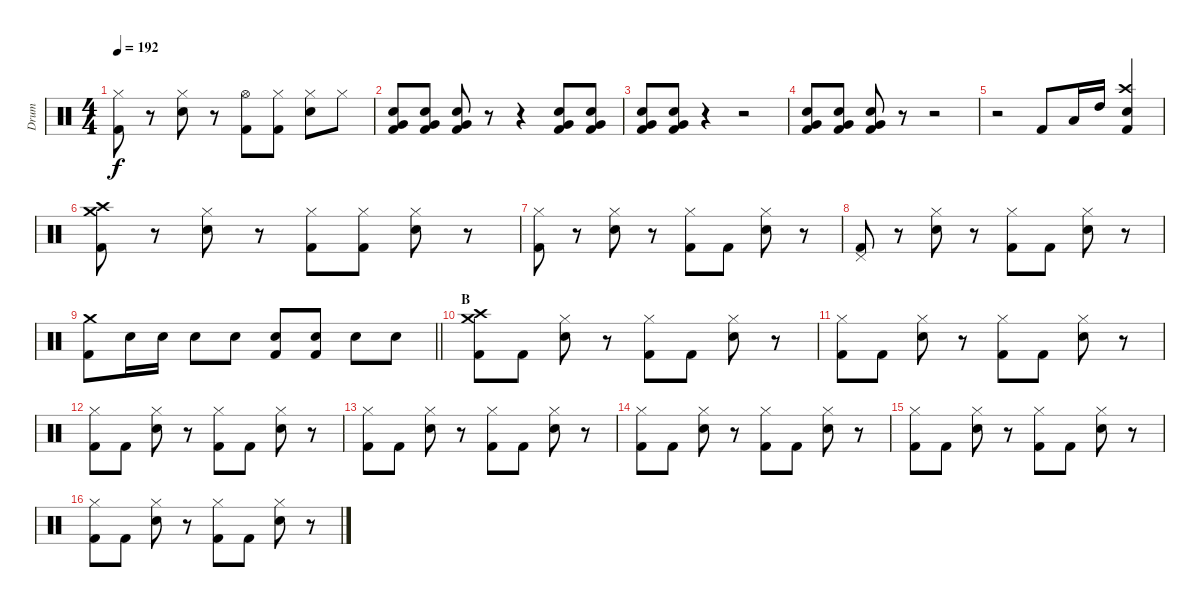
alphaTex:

\track ("Drum" "Drum") {instrument percussion}
\staff {score}
\articulation defaults
\ts (4 4)
\tempo 192
\clef neutral
\ks c
("Hi-Hat (closed)" "Kick (hit) 2").8{dy f} r.8 ("Hi-Hat (closed)" "Electric Snare (hit)").8 r.8 ("Hi-Hat (open)" "Kick (hit) 2").8 ("Hi-Hat (closed)" "Kick (hit) 2").8 ("Hi-Hat (closed)" "Electric Snare (hit)").8 "Hi-Hat (closed)".8 |
("Very Low Tom (hit)" "Electric Snare (hit)" "Kick (hit) 2").8 ("Very Low Tom (hit)" "Electric Snare (hit)" "Kick (hit) 2").8 ("Very Low Tom (hit)" "Electric Snare (hit)" "Kick (hit) 2").8 r.8 r.4 ("Very Low Tom (hit)" "Electric Snare (hit)" "Kick (hit) 2").8 ("Very Low Tom (hit)" "Electric Snare (hit)" "Kick (hit) 2").8 |
("Very Low Tom (hit)" "Electric Snare (hit)" "Kick (hit) 2").8 ("Very Low Tom (hit)" "Electric Snare (hit)" "Kick (hit) 2").8 r.4 r.2 |
("Very Low Tom (hit)" "Electric Snare (hit)" "Kick (hit) 2").8 ("Very Low Tom (hit)" "Electric Snare (hit)" "Kick (hit) 2").8 ("Very Low Tom (hit)" "Electric Snare (hit)" "Kick (hit) 2").8 r.8 r.2 |
r.2 "Kick (hit) 2".8 "Low Tom (hit)".16 "High Tom (hit)".16 ("Crash high (hit)" "Snare (hit) 2" "Kick (hit) 2").4 |
("Crash high (hit)" "Crash medium (hit)" "Kick (hit) 2").8 r.8 ("Hi-Hat (closed)" "Electric Snare (hit)").8 r.8 ("Hi-Hat (closed)" "Kick (hit) 2").8 ("Hi-Hat (closed)" "Kick (hit) 2").8 ("Hi-Hat (closed)" "Electric Snare (hit)").8 r.8 |
("Hi-Hat (closed)" "Kick (hit) 2").8 r.8 ("Hi-Hat (closed)" "Electric Snare (hit)").8 r.8 ("Hi-Hat (closed)" "Kick (hit) 2").8 "Kick (hit) 2".8 ("Hi-Hat (closed)" "Electric Snare (hit)").8 r.8 |
("Pedal Hi-Hat (hit)" "Kick (hit) 2").8 r.8 ("Hi-Hat (closed)" "Electric Snare (hit)").8 r.8 ("Hi-Hat (closed)" "Kick (hit) 2").8 "Kick (hit) 2".8 ("Hi-Hat (closed)" "Electric Snare (hit)").8 r.8 |
\barLineRight lightlight
("Crash medium (hit)" "Kick (hit) 2").8 "Electric Snare (hit)".16 "Electric Snare (hit)".16 "Electric Snare (hit)".8 "Electric Snare (hit)".8 ("Electric Snare (hit)" "Kick (hit) 2").8 ("Electric Snare (hit)" "Kick (hit) 2").8 "Electric Snare (hit)".8 "Electric Snare (hit)".8 |
\section ("" "B")
("Crash high (hit)" "Crash medium (hit)" "Kick (hit) 2").8 "Kick (hit) 2".8 ("Hi-Hat (closed)" "Electric Snare (hit)").8 r.8 ("Hi-Hat (closed)" "Kick (hit) 2").8 "Kick (hit) 2".8 ("Hi-Hat (closed)" "Electric Snare (hit)").8 r.8 |
("Hi-Hat (closed)" "Kick (hit) 2").8 "Kick (hit) 2".8 ("Hi-Hat (closed)" "Electric Snare (hit)").8 r.8 ("Hi-Hat (closed)" "Kick (hit) 2").8 "Kick (hit) 2".8 ("Hi-Hat (closed)" "Electric Snare (hit)").8 r.8 |
("Hi-Hat (closed)" "Kick (hit) 2").8 "Kick (hit) 2".8 ("Hi-Hat (closed)" "Electric Snare (hit)").8 r.8 ("Hi-Hat (closed)" "Kick (hit) 2").8 "Kick (hit) 2".8 ("Hi-Hat (closed)" "Electric Snare (hit)").8 r.8 |
("Hi-Hat (closed)" "Kick (hit) 2").8 "Kick (hit) 2".8 ("Hi-Hat (closed)" "Electric Snare (hit)").8 r.8 ("Hi-Hat (closed)" "Kick (hit) 2").8 "Kick (hit) 2".8 ("Hi-Hat (closed)" "Electric Snare (hit)").8 r.8 |
("Hi-Hat (closed)" "Kick (hit) 2").8 "Kick (hit) 2".8 ("Hi-Hat (closed)" "Electric Snare (hit)").8 r.8 ("Hi-Hat (closed)" "Kick (hit) 2").8 "Kick (hit) 2".8 ("Hi-Hat (closed)" "Electric Snare (hit)").8 r.8 |
("Hi-Hat (closed)" "Kick (hit) 2").8 "Kick (hit) 2".8 ("Hi-Hat (closed)" "Electric Snare (hit)").8 r.8 ("Hi-Hat (closed)" "Kick (hit) 2").8 "Kick (hit) 2".8 ("Hi-Hat (closed)" "Electric Snare (hit)").8 r.8 |
("Hi-Hat (closed)" "Kick (hit) 2").8 "Kick (hit) 2".8 ("Hi-Hat (closed)" "Electric Snare (hit)").8 r.8 ("Hi-Hat (closed)" "Kick (hit) 2").8 "Kick (hit) 2".8 ("Hi-Hat (closed)" "Electric Snare (hit)").8 r.8
